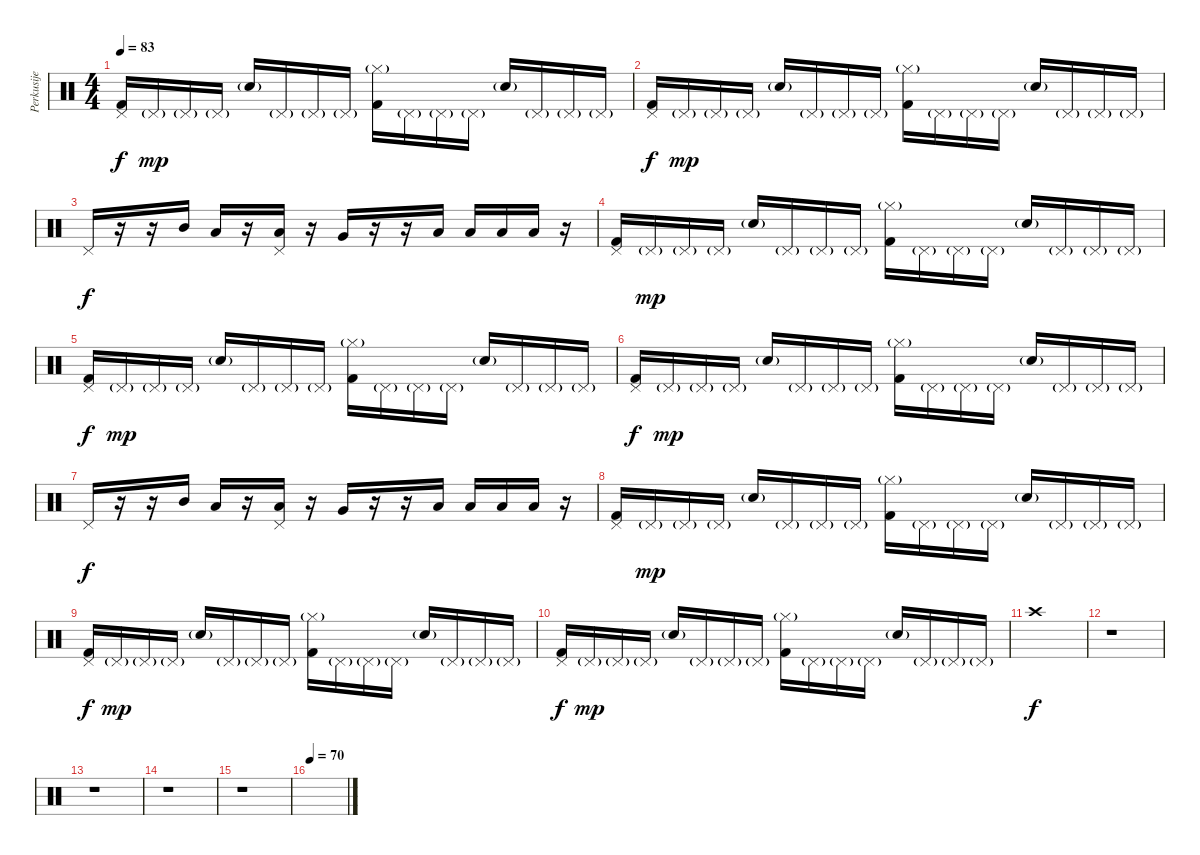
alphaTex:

\track ("Perkusije" "Perkusije") {instrument percussion}
\staff {score}
\articulation defaults
\ts (4 4)
\tempo 83
\clef neutral
\ks c
("Pedal Hi-Hat (hit)" "Kick (hit) 2").16{dy f} "Pedal Hi-Hat (hit)"{g}.16{dy mp} "Pedal Hi-Hat (hit)"{g}.16 "Pedal Hi-Hat (hit)"{g}.16 "Snare (hit) 2"{g}.16 "Pedal Hi-Hat (hit)"{g}.16 "Pedal Hi-Hat (hit)"{g}.16 "Pedal Hi-Hat (hit)"{g}.16 ("Hi-Hat (closed)"{g} "Kick (hit) 2").16 "Pedal Hi-Hat (hit)"{g}.16 "Pedal Hi-Hat (hit)"{g}.16 "Pedal Hi-Hat (hit)"{g}.16 "Snare (hit) 2"{g}.16 "Pedal Hi-Hat (hit)"{g}.16 "Pedal Hi-Hat (hit)"{g}.16 "Pedal Hi-Hat (hit)"{g}.16 |
("Pedal Hi-Hat (hit)" "Kick (hit) 2").16{dy f} "Pedal Hi-Hat (hit)"{g}.16{dy mp} "Pedal Hi-Hat (hit)"{g}.16 "Pedal Hi-Hat (hit)"{g}.16 "Snare (hit) 2"{g}.16 "Pedal Hi-Hat (hit)"{g}.16 "Pedal Hi-Hat (hit)"{g}.16 "Pedal Hi-Hat (hit)"{g}.16 ("Hi-Hat (closed)"{g} "Kick (hit) 2").16 "Pedal Hi-Hat (hit)"{g}.16 "Pedal Hi-Hat (hit)"{g}.16 "Pedal Hi-Hat (hit)"{g}.16 "Snare (hit) 2"{g}.16 "Pedal Hi-Hat (hit)"{g}.16 "Pedal Hi-Hat (hit)"{g}.16 "Pedal Hi-Hat (hit)"{g}.16 |
"Pedal Hi-Hat (hit)".16{dy f} r.16 r.16 "Mid Tom (hit)".16 "Low Tom (hit)".16 r.16 ("Pedal Hi-Hat (hit)" "Low Tom (hit)").16 r.16 "Very Low Tom (hit)".16 r.16 r.16 "Low Floor Tom (hit)".16 "Low Floor Tom (hit)".16 "Low Floor Tom (hit)".16 "Low Floor Tom (hit)".16 r.16 |
("Pedal Hi-Hat (hit)" "Kick (hit) 2").16 "Pedal Hi-Hat (hit)"{g}.16{dy mp} "Pedal Hi-Hat (hit)"{g}.16 "Pedal Hi-Hat (hit)"{g}.16 "Snare (hit) 2"{g}.16 "Pedal Hi-Hat (hit)"{g}.16 "Pedal Hi-Hat (hit)"{g}.16 "Pedal Hi-Hat (hit)"{g}.16 ("Hi-Hat (closed)"{g} "Kick (hit) 2").16 "Pedal Hi-Hat (hit)"{g}.16 "Pedal Hi-Hat (hit)"{g}.16 "Pedal Hi-Hat (hit)"{g}.16 "Snare (hit) 2"{g}.16 "Pedal Hi-Hat (hit)"{g}.16 "Pedal Hi-Hat (hit)"{g}.16 "Pedal Hi-Hat (hit)"{g}.16 |
("Pedal Hi-Hat (hit)" "Kick (hit) 2").16{dy f} "Pedal Hi-Hat (hit)"{g}.16{dy mp} "Pedal Hi-Hat (hit)"{g}.16 "Pedal Hi-Hat (hit)"{g}.16 "Snare (hit) 2"{g}.16 "Pedal Hi-Hat (hit)"{g}.16 "Pedal Hi-Hat (hit)"{g}.16 "Pedal Hi-Hat (hit)"{g}.16 ("Hi-Hat (closed)"{g} "Kick (hit) 2").16 "Pedal Hi-Hat (hit)"{g}.16 "Pedal Hi-Hat (hit)"{g}.16 "Pedal Hi-Hat (hit)"{g}.16 "Snare (hit) 2"{g}.16 "Pedal Hi-Hat (hit)"{g}.16 "Pedal Hi-Hat (hit)"{g}.16 "Pedal Hi-Hat (hit)"{g}.16 |
("Pedal Hi-Hat (hit)" "Kick (hit) 2").16{dy f} "Pedal Hi-Hat (hit)"{g}.16{dy mp} "Pedal Hi-Hat (hit)"{g}.16 "Pedal Hi-Hat (hit)"{g}.16 "Snare (hit) 2"{g}.16 "Pedal Hi-Hat (hit)"{g}.16 "Pedal Hi-Hat (hit)"{g}.16 "Pedal Hi-Hat (hit)"{g}.16 ("Hi-Hat (closed)"{g} "Kick (hit) 2").16 "Pedal Hi-Hat (hit)"{g}.16 "Pedal Hi-Hat (hit)"{g}.16 "Pedal Hi-Hat (hit)"{g}.16 "Snare (hit) 2"{g}.16 "Pedal Hi-Hat (hit)"{g}.16 "Pedal Hi-Hat (hit)"{g}.16 "Pedal Hi-Hat (hit)"{g}.16 |
"Pedal Hi-Hat (hit)".16{dy f} r.16 r.16 "Mid Tom (hit)".16 "Low Tom (hit)".16 r.16 ("Pedal Hi-Hat (hit)" "Low Tom (hit)").16 r.16 "Very Low Tom (hit)".16 r.16 r.16 "Low Floor Tom (hit)".16 "Low Floor Tom (hit)".16 "Low Floor Tom (hit)".16 "Low Floor Tom (hit)".16 r.16 |
("Pedal Hi-Hat (hit)" "Kick (hit) 2").16 "Pedal Hi-Hat (hit)"{g}.16{dy mp} "Pedal Hi-Hat (hit)"{g}.16 "Pedal Hi-Hat (hit)"{g}.16 "Snare (hit) 2"{g}.16 "Pedal Hi-Hat (hit)"{g}.16 "Pedal Hi-Hat (hit)"{g}.16 "Pedal Hi-Hat (hit)"{g}.16 ("Hi-Hat (closed)"{g} "Kick (hit) 2").16 "Pedal Hi-Hat (hit)"{g}.16 "Pedal Hi-Hat (hit)"{g}.16 "Pedal Hi-Hat (hit)"{g}.16 "Snare (hit) 2"{g}.16 "Pedal Hi-Hat (hit)"{g}.16 "Pedal Hi-Hat (hit)"{g}.16 "Pedal Hi-Hat (hit)"{g}.16 |
("Pedal Hi-Hat (hit)" "Kick (hit) 2").16{dy f} "Pedal Hi-Hat (hit)"{g}.16{dy mp} "Pedal Hi-Hat (hit)"{g}.16 "Pedal Hi-Hat (hit)"{g}.16 "Snare (hit) 2"{g}.16 "Pedal Hi-Hat (hit)"{g}.16 "Pedal Hi-Hat (hit)"{g}.16 "Pedal Hi-Hat (hit)"{g}.16 ("Hi-Hat (closed)"{g} "Kick (hit) 2").16 "Pedal Hi-Hat (hit)"{g}.16 "Pedal Hi-Hat (hit)"{g}.16 "Pedal Hi-Hat (hit)"{g}.16 "Snare (hit) 2"{g}.16 "Pedal Hi-Hat (hit)"{g}.16 "Pedal Hi-Hat (hit)"{g}.16 "Pedal Hi-Hat (hit)"{g}.16 |
("Pedal Hi-Hat (hit)" "Kick (hit) 2").16{dy f} "Pedal Hi-Hat (hit)"{g}.16{dy mp} "Pedal Hi-Hat (hit)"{g}.16 "Pedal Hi-Hat (hit)"{g}.16 "Snare (hit) 2"{g}.16 "Pedal Hi-Hat (hit)"{g}.16 "Pedal Hi-Hat (hit)"{g}.16 "Pedal Hi-Hat (hit)"{g}.16 ("Hi-Hat (closed)"{g} "Kick (hit) 2").16 "Pedal Hi-Hat (hit)"{g}.16 "Pedal Hi-Hat (hit)"{g}.16 "Pedal Hi-Hat (hit)"{g}.16 "Snare (hit) 2"{g}.16 "Pedal Hi-Hat (hit)"{g}.16 "Pedal Hi-Hat (hit)"{g}.16 "Pedal Hi-Hat (hit)"{g}.16 |
"Crash high (hit)".1{dy f} |
r.1 |
r.1 |
r.1 |
r.1 |
\tempo 70
